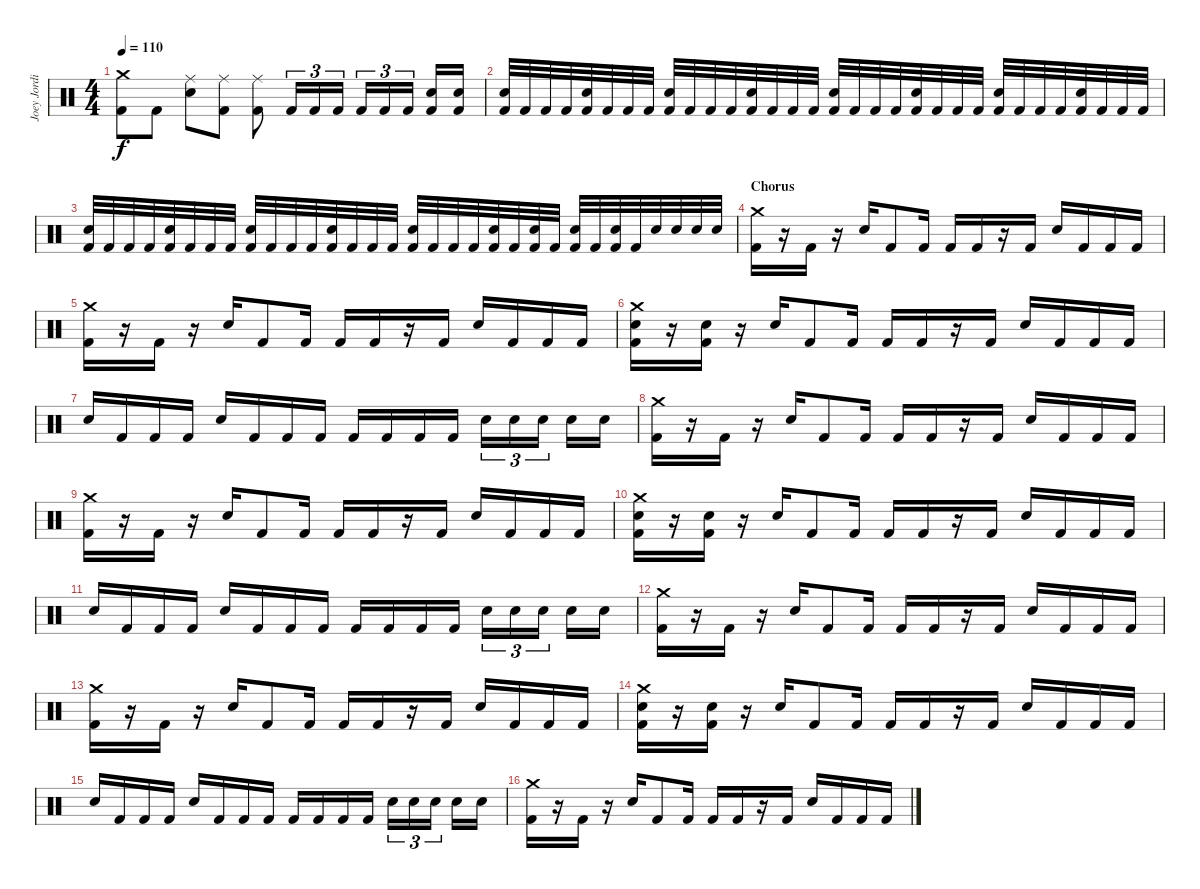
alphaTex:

\track ("Joey Jordison" "Joey Jordi") {instrument percussion}
\staff {score}
\articulation defaults
\ts (4 4)
\tempo 110
\clef neutral
\ks c
("Crash medium (hit)" "Kick (hit) 2").8{dy f} "Kick (hit) 2".8 ("Ride (middle)" "Snare (hit) 2").8 ("Ride (middle)" "Kick (hit) 2").8 ("Ride (middle)" "Kick (hit) 2").8 "Kick (hit) 2".16{tu (3 2)} "Kick (hit) 2".16{tu (3 2)} "Kick (hit) 2".16{tu (3 2)} "Kick (hit) 2".16{tu (3 2)} "Kick (hit) 2".16{tu (3 2)} "Kick (hit) 2".16{tu (3 2)} ("Snare (hit) 2" "Kick (hit) 2").16 ("Snare (hit) 2" "Kick (hit) 2").16 |
("Snare (hit) 2" "Kick (hit) 2").32 "Kick (hit) 2".32 "Kick (hit) 2".32 "Kick (hit) 2".32 ("Snare (hit) 2" "Kick (hit) 2").32 "Kick (hit) 2".32 "Kick (hit) 2".32 "Kick (hit) 2".32 ("Snare (hit) 2" "Kick (hit) 2").32 "Kick (hit) 2".32 "Kick (hit) 2".32 "Kick (hit) 2".32 ("Snare (hit) 2" "Kick (hit) 2").32 "Kick (hit) 2".32 "Kick (hit) 2".32 "Kick (hit) 2".32 ("Snare (hit) 2" "Kick (hit) 2").32 "Kick (hit) 2".32 "Kick (hit) 2".32 "Kick (hit) 2".32 ("Snare (hit) 2" "Kick (hit) 2").32 "Kick (hit) 2".32 "Kick (hit) 2".32 "Kick (hit) 2".32 ("Snare (hit) 2" "Kick (hit) 2").32 "Kick (hit) 2".32 "Kick (hit) 2".32 "Kick (hit) 2".32 ("Snare (hit) 2" "Kick (hit) 2").32 "Kick (hit) 2".32 "Kick (hit) 2".32 "Kick (hit) 2".32 |
("Snare (hit) 2" "Kick (hit) 2").32 "Kick (hit) 2".32 "Kick (hit) 2".32 "Kick (hit) 2".32 ("Snare (hit) 2" "Kick (hit) 2").32 "Kick (hit) 2".32 "Kick (hit) 2".32 "Kick (hit) 2".32 ("Snare (hit) 2" "Kick (hit) 2").32 "Kick (hit) 2".32 "Kick (hit) 2".32 "Kick (hit) 2".32 ("Snare (hit) 2" "Kick (hit) 2").32 "Kick (hit) 2".32 "Kick (hit) 2".32 "Kick (hit) 2".32 ("Snare (hit) 2" "Kick (hit) 2").32 "Kick (hit) 2".32 "Kick (hit) 2".32 "Kick (hit) 2".32 ("Snare (hit) 2" "Kick (hit) 2").32 "Kick (hit) 2".32 ("Snare (hit) 2" "Kick (hit) 2").32 "Kick (hit) 2".32 ("Snare (hit) 2" "Kick (hit) 2").32 "Kick (hit) 2".32 ("Snare (hit) 2" "Kick (hit) 2").32 "Kick (hit) 2".32 "Snare (hit) 2".32 "Snare (hit) 2".32 "Snare (hit) 2".32 "Snare (hit) 2".32 |
\section ("" "Chorus")
("Crash medium (hit)" "Kick (hit) 2").16 r.16 "Kick (hit) 2".16 r.16 "Snare (hit) 2".16 "Kick (hit) 2".8 "Kick (hit) 2".16 "Kick (hit) 2".16 "Kick (hit) 2".16 r.16 "Kick (hit) 2".16 "Snare (hit) 2".16 "Kick (hit) 2".16 "Kick (hit) 2".16 "Kick (hit) 2".16 |
("Crash medium (hit)" "Kick (hit) 2").16 r.16 "Kick (hit) 2".16 r.16 "Snare (hit) 2".16 "Kick (hit) 2".8 "Kick (hit) 2".16 "Kick (hit) 2".16 "Kick (hit) 2".16 r.16 "Kick (hit) 2".16 "Snare (hit) 2".16 "Kick (hit) 2".16 "Kick (hit) 2".16 "Kick (hit) 2".16 |
("Crash medium (hit)" "Snare (hit) 2" "Kick (hit) 2").16 r.16 ("Snare (hit) 2" "Kick (hit) 2").16 r.16 "Snare (hit) 2".16 "Kick (hit) 2".8 "Kick (hit) 2".16 "Kick (hit) 2".16 "Kick (hit) 2".16 r.16 "Kick (hit) 2".16 "Snare (hit) 2".16 "Kick (hit) 2".16 "Kick (hit) 2".16 "Kick (hit) 2".16 |
"Snare (hit) 2".16 "Kick (hit) 2".16 "Kick (hit) 2".16 "Kick (hit) 2".16 "Snare (hit) 2".16 "Kick (hit) 2".16 "Kick (hit) 2".16 "Kick (hit) 2".16 "Kick (hit) 2".16 "Kick (hit) 2".16 "Kick (hit) 2".16 "Kick (hit) 2".16 "Snare (hit) 2".16{tu (3 2)} "Snare (hit) 2".16{tu (3 2)} "Snare (hit) 2".16{tu (3 2)} "Snare (hit) 2".16 "Snare (hit) 2".16 |
("Crash medium (hit)" "Kick (hit) 2").16 r.16 "Kick (hit) 2".16 r.16 "Snare (hit) 2".16 "Kick (hit) 2".8 "Kick (hit) 2".16 "Kick (hit) 2".16 "Kick (hit) 2".16 r.16 "Kick (hit) 2".16 "Snare (hit) 2".16 "Kick (hit) 2".16 "Kick (hit) 2".16 "Kick (hit) 2".16 |
("Crash medium (hit)" "Kick (hit) 2").16 r.16 "Kick (hit) 2".16 r.16 "Snare (hit) 2".16 "Kick (hit) 2".8 "Kick (hit) 2".16 "Kick (hit) 2".16 "Kick (hit) 2".16 r.16 "Kick (hit) 2".16 "Snare (hit) 2".16 "Kick (hit) 2".16 "Kick (hit) 2".16 "Kick (hit) 2".16 |
("Crash medium (hit)" "Snare (hit) 2" "Kick (hit) 2").16 r.16 ("Snare (hit) 2" "Kick (hit) 2").16 r.16 "Snare (hit) 2".16 "Kick (hit) 2".8 "Kick (hit) 2".16 "Kick (hit) 2".16 "Kick (hit) 2".16 r.16 "Kick (hit) 2".16 "Snare (hit) 2".16 "Kick (hit) 2".16 "Kick (hit) 2".16 "Kick (hit) 2".16 |
"Snare (hit) 2".16 "Kick (hit) 2".16 "Kick (hit) 2".16 "Kick (hit) 2".16 "Snare (hit) 2".16 "Kick (hit) 2".16 "Kick (hit) 2".16 "Kick (hit) 2".16 "Kick (hit) 2".16 "Kick (hit) 2".16 "Kick (hit) 2".16 "Kick (hit) 2".16 "Snare (hit) 2".16{tu (3 2)} "Snare (hit) 2".16{tu (3 2)} "Snare (hit) 2".16{tu (3 2)} "Snare (hit) 2".16 "Snare (hit) 2".16 |
("Crash medium (hit)" "Kick (hit) 2").16 r.16 "Kick (hit) 2".16 r.16 "Snare (hit) 2".16 "Kick (hit) 2".8 "Kick (hit) 2".16 "Kick (hit) 2".16 "Kick (hit) 2".16 r.16 "Kick (hit) 2".16 "Snare (hit) 2".16 "Kick (hit) 2".16 "Kick (hit) 2".16 "Kick (hit) 2".16 |
("Crash medium (hit)" "Kick (hit) 2").16 r.16 "Kick (hit) 2".16 r.16 "Snare (hit) 2".16 "Kick (hit) 2".8 "Kick (hit) 2".16 "Kick (hit) 2".16 "Kick (hit) 2".16 r.16 "Kick (hit) 2".16 "Snare (hit) 2".16 "Kick (hit) 2".16 "Kick (hit) 2".16 "Kick (hit) 2".16 |
("Crash medium (hit)" "Snare (hit) 2" "Kick (hit) 2").16 r.16 ("Snare (hit) 2" "Kick (hit) 2").16 r.16 "Snare (hit) 2".16 "Kick (hit) 2".8 "Kick (hit) 2".16 "Kick (hit) 2".16 "Kick (hit) 2".16 r.16 "Kick (hit) 2".16 "Snare (hit) 2".16 "Kick (hit) 2".16 "Kick (hit) 2".16 "Kick (hit) 2".16 |
"Snare (hit) 2".16 "Kick (hit) 2".16 "Kick (hit) 2".16 "Kick (hit) 2".16 "Snare (hit) 2".16 "Kick (hit) 2".16 "Kick (hit) 2".16 "Kick (hit) 2".16 "Kick (hit) 2".16 "Kick (hit) 2".16 "Kick (hit) 2".16 "Kick (hit) 2".16 "Snare (hit) 2".16{tu (3 2)} "Snare (hit) 2".16{tu (3 2)} "Snare (hit) 2".16{tu (3 2)} "Snare (hit) 2".16 "Snare (hit) 2".16 |
("Crash medium (hit)" "Kick (hit) 2").16 r.16 "Kick (hit) 2".16 r.16 "Snare (hit) 2".16 "Kick (hit) 2".8 "Kick (hit) 2".16 "Kick (hit) 2".16 "Kick (hit) 2".16 r.16 "Kick (hit) 2".16 "Snare (hit) 2".16 "Kick (hit) 2".16 "Kick (hit) 2".16 "Kick (hit) 2".16
